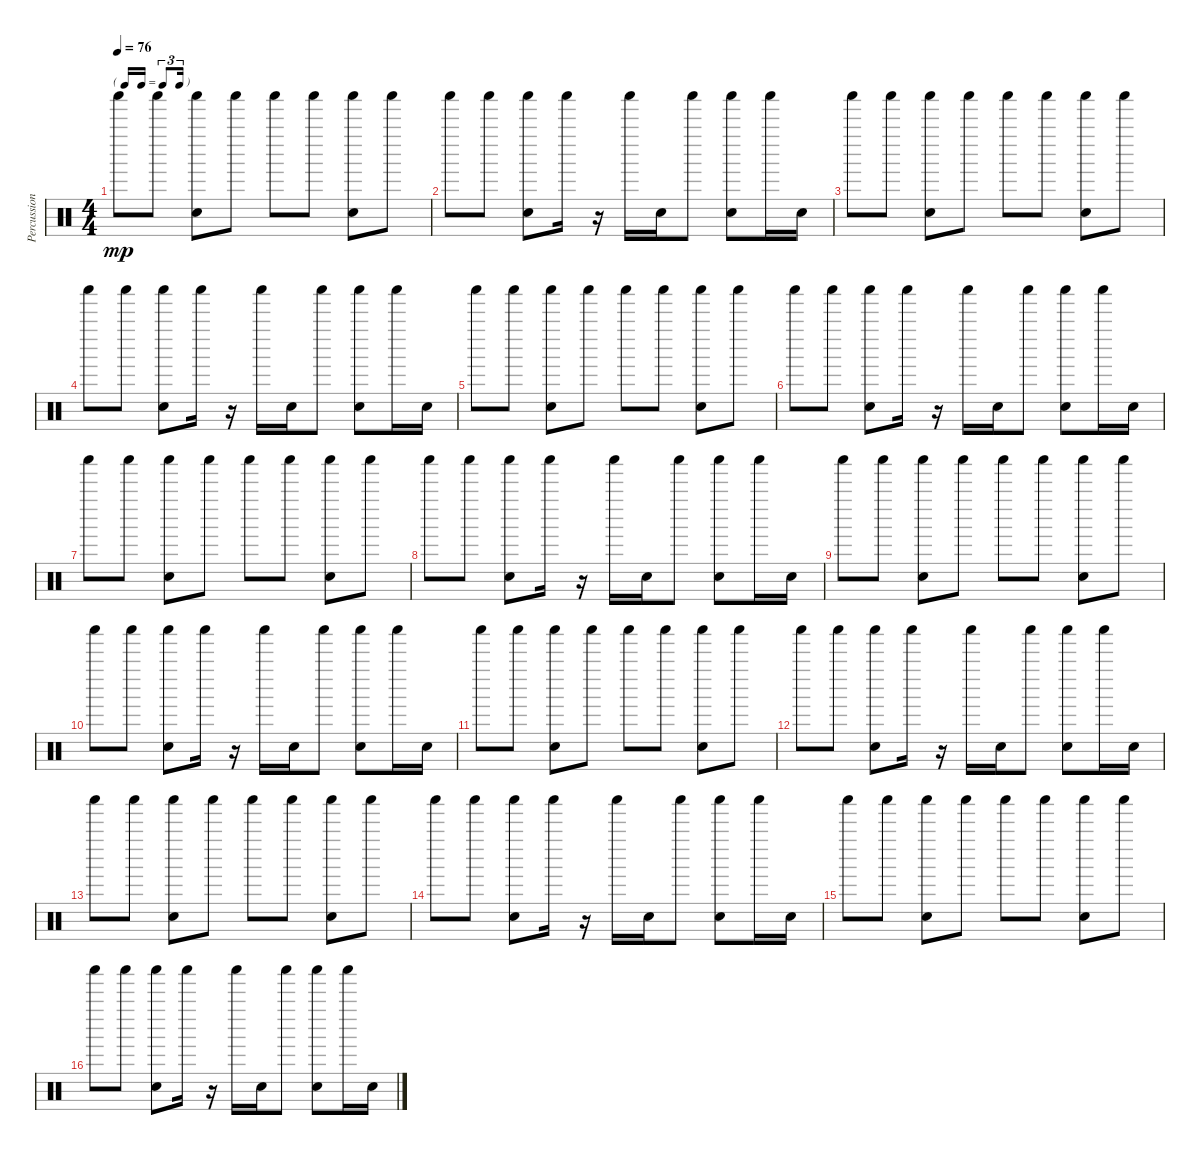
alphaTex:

\track ("Percussions" "Percussion") {instrument percussion}
\staff {score}
\articulation defaults
\ts (4 4)
\tf triplet16th
\tempo 76
\clef neutral
\ks c "Shaker (hit)".8{dy mp} "Shaker (hit)".8
("Shaker (hit)" "Snare (hit) 2").8 "Shaker (hit)".8 "Shaker (hit)".8 "Shaker (hit)".8 ("Shaker (hit)" "Snare (hit) 2").8 "Shaker (hit)".8 |
"Shaker (hit)".8 "Shaker (hit)".8 ("Shaker (hit)" "Snare (hit) 2").8 "Shaker (hit)".16 r.16 "Shaker (hit)".16 "Snare (hit) 2".16 "Shaker (hit)".8 ("Shaker (hit)" "Snare (hit) 2").8 "Shaker (hit)".16 "Snare (hit) 2".16 |
"Shaker (hit)".8 "Shaker (hit)".8 ("Shaker (hit)" "Snare (hit) 2").8 "Shaker (hit)".8 "Shaker (hit)".8 "Shaker (hit)".8 ("Shaker (hit)" "Snare (hit) 2").8 "Shaker (hit)".8 |
"Shaker (hit)".8 "Shaker (hit)".8 ("Shaker (hit)" "Snare (hit) 2").8 "Shaker (hit)".16 r.16 "Shaker (hit)".16 "Snare (hit) 2".16 "Shaker (hit)".8 ("Shaker (hit)" "Snare (hit) 2").8 "Shaker (hit)".16 "Snare (hit) 2".16 |
"Shaker (hit)".8 "Shaker (hit)".8 ("Shaker (hit)" "Snare (hit) 2").8 "Shaker (hit)".8 "Shaker (hit)".8 "Shaker (hit)".8 ("Shaker (hit)" "Snare (hit) 2").8 "Shaker (hit)".8 |
"Shaker (hit)".8 "Shaker (hit)".8 ("Shaker (hit)" "Snare (hit) 2").8 "Shaker (hit)".16 r.16 "Shaker (hit)".16 "Snare (hit) 2".16 "Shaker (hit)".8 ("Shaker (hit)" "Snare (hit) 2").8 "Shaker (hit)".16 "Snare (hit) 2".16 |
"Shaker (hit)".8 "Shaker (hit)".8 ("Shaker (hit)" "Snare (hit) 2").8 "Shaker (hit)".8 "Shaker (hit)".8 "Shaker (hit)".8 ("Shaker (hit)" "Snare (hit) 2").8 "Shaker (hit)".8 |
"Shaker (hit)".8 "Shaker (hit)".8 ("Shaker (hit)" "Snare (hit) 2").8 "Shaker (hit)".16 r.16 "Shaker (hit)".16 "Snare (hit) 2".16 "Shaker (hit)".8 ("Shaker (hit)" "Snare (hit) 2").8 "Shaker (hit)".16 "Snare (hit) 2".16 |
"Shaker (hit)".8 "Shaker (hit)".8 ("Shaker (hit)" "Snare (hit) 2").8 "Shaker (hit)".8 "Shaker (hit)".8 "Shaker (hit)".8 ("Shaker (hit)" "Snare (hit) 2").8 "Shaker (hit)".8 |
"Shaker (hit)".8 "Shaker (hit)".8 ("Shaker (hit)" "Snare (hit) 2").8 "Shaker (hit)".16 r.16 "Shaker (hit)".16 "Snare (hit) 2".16 "Shaker (hit)".8 ("Shaker (hit)" "Snare (hit) 2").8 "Shaker (hit)".16 "Snare (hit) 2".16 |
"Shaker (hit)".8 "Shaker (hit)".8 ("Shaker (hit)" "Snare (hit) 2").8 "Shaker (hit)".8 "Shaker (hit)".8 "Shaker (hit)".8 ("Shaker (hit)" "Snare (hit) 2").8 "Shaker (hit)".8 |
"Shaker (hit)".8 "Shaker (hit)".8 ("Shaker (hit)" "Snare (hit) 2").8 "Shaker (hit)".16 r.16 "Shaker (hit)".16 "Snare (hit) 2".16 "Shaker (hit)".8 ("Shaker (hit)" "Snare (hit) 2").8 "Shaker (hit)".16 "Snare (hit) 2".16 |
"Shaker (hit)".8 "Shaker (hit)".8 ("Shaker (hit)" "Snare (hit) 2").8 "Shaker (hit)".8 "Shaker (hit)".8 "Shaker (hit)".8 ("Shaker (hit)" "Snare (hit) 2").8 "Shaker (hit)".8 |
"Shaker (hit)".8 "Shaker (hit)".8 ("Shaker (hit)" "Snare (hit) 2").8 "Shaker (hit)".16 r.16 "Shaker (hit)".16 "Snare (hit) 2".16 "Shaker (hit)".8 ("Shaker (hit)" "Snare (hit) 2").8 "Shaker (hit)".16 "Snare (hit) 2".16 |
"Shaker (hit)".8 "Shaker (hit)".8 ("Shaker (hit)" "Snare (hit) 2").8 "Shaker (hit)".8 "Shaker (hit)".8 "Shaker (hit)".8 ("Shaker (hit)" "Snare (hit) 2").8 "Shaker (hit)".8 |
"Shaker (hit)".8 "Shaker (hit)".8 ("Shaker (hit)" "Snare (hit) 2").8 "Shaker (hit)".16 r.16 "Shaker (hit)".16 "Snare (hit) 2".16 "Shaker (hit)".8 ("Shaker (hit)" "Snare (hit) 2").8 "Shaker (hit)".16 "Snare (hit) 2".16
